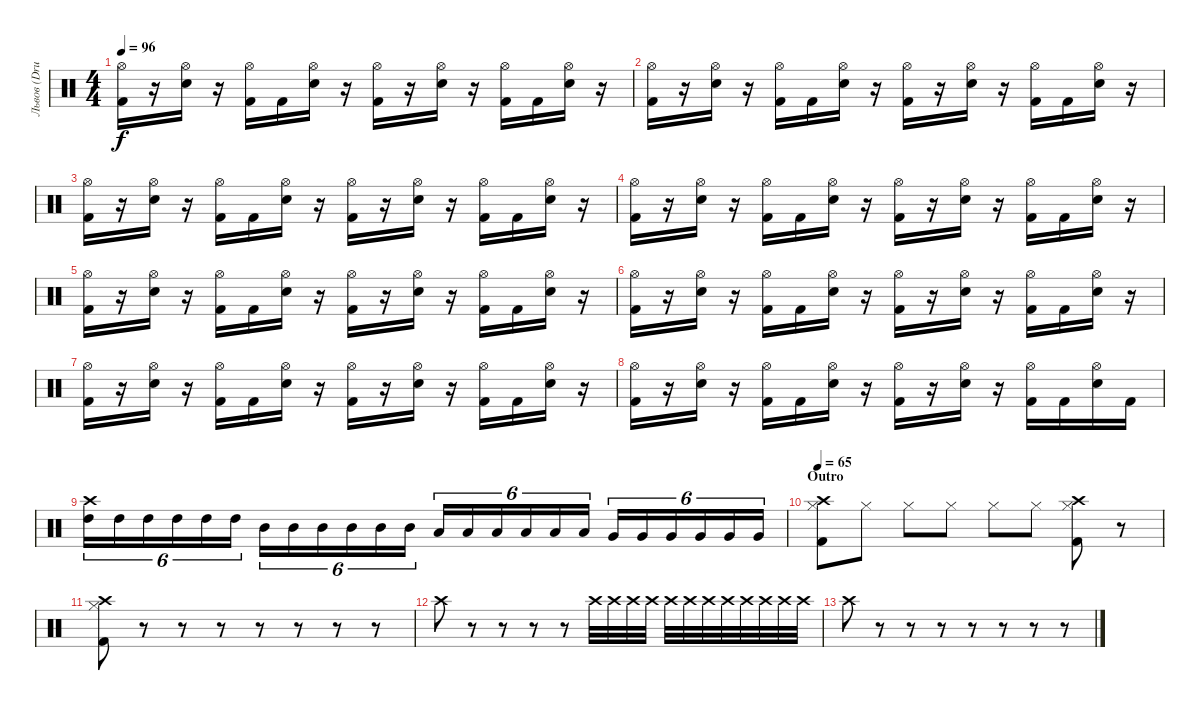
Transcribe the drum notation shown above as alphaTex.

\track ("Львов (Drums)" "Львов (Dru") {instrument percussion}
\staff {score}
\articulation defaults
\ts (4 4)
\tempo 96
\clef neutral
\ks c
("Kick (hit) 2" "Hi-Hat (open)").16{dy f} r.16 ("Electric Snare (hit)" "Hi-Hat (open)").16 r.16 ("Kick (hit) 2" "Hi-Hat (open)").16 "Kick (hit) 2".16 ("Electric Snare (hit)" "Hi-Hat (open)").16 r.16 ("Kick (hit) 2" "Hi-Hat (open)").16 r.16 ("Electric Snare (hit)" "Hi-Hat (open)").16 r.16 ("Kick (hit) 2" "Hi-Hat (open)").16 "Kick (hit) 2".16 ("Electric Snare (hit)" "Hi-Hat (open)").16 r.16 |
("Kick (hit) 2" "Hi-Hat (open)").16 r.16 ("Electric Snare (hit)" "Hi-Hat (open)").16 r.16 ("Kick (hit) 2" "Hi-Hat (open)").16 "Kick (hit) 2".16 ("Electric Snare (hit)" "Hi-Hat (open)").16 r.16 ("Kick (hit) 2" "Hi-Hat (open)").16 r.16 ("Electric Snare (hit)" "Hi-Hat (open)").16 r.16 ("Kick (hit) 2" "Hi-Hat (open)").16 "Kick (hit) 2".16 ("Electric Snare (hit)" "Hi-Hat (open)").16 r.16 |
("Kick (hit) 2" "Hi-Hat (open)").16 r.16 ("Electric Snare (hit)" "Hi-Hat (open)").16 r.16 ("Kick (hit) 2" "Hi-Hat (open)").16 "Kick (hit) 2".16 ("Electric Snare (hit)" "Hi-Hat (open)").16 r.16 ("Kick (hit) 2" "Hi-Hat (open)").16 r.16 ("Electric Snare (hit)" "Hi-Hat (open)").16 r.16 ("Kick (hit) 2" "Hi-Hat (open)").16 "Kick (hit) 2".16 ("Electric Snare (hit)" "Hi-Hat (open)").16 r.16 |
("Kick (hit) 2" "Hi-Hat (open)").16 r.16 ("Electric Snare (hit)" "Hi-Hat (open)").16 r.16 ("Kick (hit) 2" "Hi-Hat (open)").16 "Kick (hit) 2".16 ("Electric Snare (hit)" "Hi-Hat (open)").16 r.16 ("Kick (hit) 2" "Hi-Hat (open)").16 r.16 ("Electric Snare (hit)" "Hi-Hat (open)").16 r.16 ("Kick (hit) 2" "Hi-Hat (open)").16 "Kick (hit) 2".16 ("Electric Snare (hit)" "Hi-Hat (open)").16 r.16 |
("Kick (hit) 2" "Hi-Hat (open)").16 r.16 ("Electric Snare (hit)" "Hi-Hat (open)").16 r.16 ("Kick (hit) 2" "Hi-Hat (open)").16 "Kick (hit) 2".16 ("Electric Snare (hit)" "Hi-Hat (open)").16 r.16 ("Kick (hit) 2" "Hi-Hat (open)").16 r.16 ("Electric Snare (hit)" "Hi-Hat (open)").16 r.16 ("Kick (hit) 2" "Hi-Hat (open)").16 "Kick (hit) 2".16 ("Electric Snare (hit)" "Hi-Hat (open)").16 r.16 |
("Kick (hit) 2" "Hi-Hat (open)").16 r.16 ("Electric Snare (hit)" "Hi-Hat (open)").16 r.16 ("Kick (hit) 2" "Hi-Hat (open)").16 "Kick (hit) 2".16 ("Electric Snare (hit)" "Hi-Hat (open)").16 r.16 ("Kick (hit) 2" "Hi-Hat (open)").16 r.16 ("Electric Snare (hit)" "Hi-Hat (open)").16 r.16 ("Kick (hit) 2" "Hi-Hat (open)").16 "Kick (hit) 2".16 ("Electric Snare (hit)" "Hi-Hat (open)").16 r.16 |
("Kick (hit) 2" "Hi-Hat (open)").16 r.16 ("Electric Snare (hit)" "Hi-Hat (open)").16 r.16 ("Kick (hit) 2" "Hi-Hat (open)").16 "Kick (hit) 2".16 ("Electric Snare (hit)" "Hi-Hat (open)").16 r.16 ("Kick (hit) 2" "Hi-Hat (open)").16 r.16 ("Electric Snare (hit)" "Hi-Hat (open)").16 r.16 ("Kick (hit) 2" "Hi-Hat (open)").16 "Kick (hit) 2".16 ("Electric Snare (hit)" "Hi-Hat (open)").16 r.16 |
("Kick (hit) 2" "Hi-Hat (open)").16 r.16 ("Electric Snare (hit)" "Hi-Hat (open)").16 r.16 ("Kick (hit) 2" "Hi-Hat (open)").16 "Kick (hit) 2".16 ("Electric Snare (hit)" "Hi-Hat (open)").16 r.16 ("Kick (hit) 2" "Hi-Hat (open)").16 r.16 ("Electric Snare (hit)" "Hi-Hat (open)").16 r.16 ("Kick (hit) 2" "Hi-Hat (open)").16 "Kick (hit) 2".16 ("Electric Snare (hit)" "Hi-Hat (open)").16 "Kick (hit) 2".16 |
("High Tom (hit)" "Crash high (hit)").16{tu (6 4)} "High Tom (hit)".16{tu (6 4)} "High Tom (hit)".16{tu (6 4)} "High Tom (hit)".16{tu (6 4)} "High Tom (hit)".16{tu (6 4)} "High Tom (hit)".16{tu (6 4)} "Mid Tom (hit)".16{tu (6 4)} "Mid Tom (hit)".16{tu (6 4)} "Mid Tom (hit)".16{tu (6 4)} "Mid Tom (hit)".16{tu (6 4)} "Mid Tom (hit)".16{tu (6 4)} "Mid Tom (hit)".16{tu (6 4)} "Low Tom (hit)".16{tu (6 4)} "Low Tom (hit)".16{tu (6 4)} "Low Tom (hit)".16{tu (6 4)} "Low Tom (hit)".16{tu (6 4)} "Low Tom (hit)".16{tu (6 4)} "Low Tom (hit)".16{tu (6 4)} "Very Low Tom (hit)".16{tu (6 4)} "Very Low Tom (hit)".16{tu (6 4)} "Very Low Tom (hit)".16{tu (6 4)} "Very Low Tom (hit)".16{tu (6 4)} "Very Low Tom (hit)".16{tu (6 4)} "Very Low Tom (hit)".16{tu (6 4)} |
\section ("" "Outro")
\tempo 65
("Crash high (hit)" "Kick (hit) 2" "Hi-Hat (closed)").8 "Hi-Hat (closed)".8 "Hi-Hat (closed)".8 "Hi-Hat (closed)".8 "Hi-Hat (closed)".8 "Hi-Hat (closed)".8 ("Crash high (hit)" "Kick (hit) 2" "Hi-Hat (closed)").8 r.8 |
("Crash high (hit)" "Kick (hit) 2" "Hi-Hat (closed)").8 r.8 r.8 r.8 r.8 r.8 r.8 r.8 |
"Crash high (hit)".8 r.8 r.8 r.8 r.8 "Crash high (hit)".32 "Crash high (hit)".32 "Crash high (hit)".32 "Crash high (hit)".32 "Crash high (hit)".32 "Crash high (hit)".32 "Crash high (hit)".32 "Crash high (hit)".32 "Crash high (hit)".32 "Crash high (hit)".32 "Crash high (hit)".32 "Crash high (hit)".32 |
"Crash high (hit)".8 r.8 r.8 r.8 r.8 r.8 r.8 r.8
